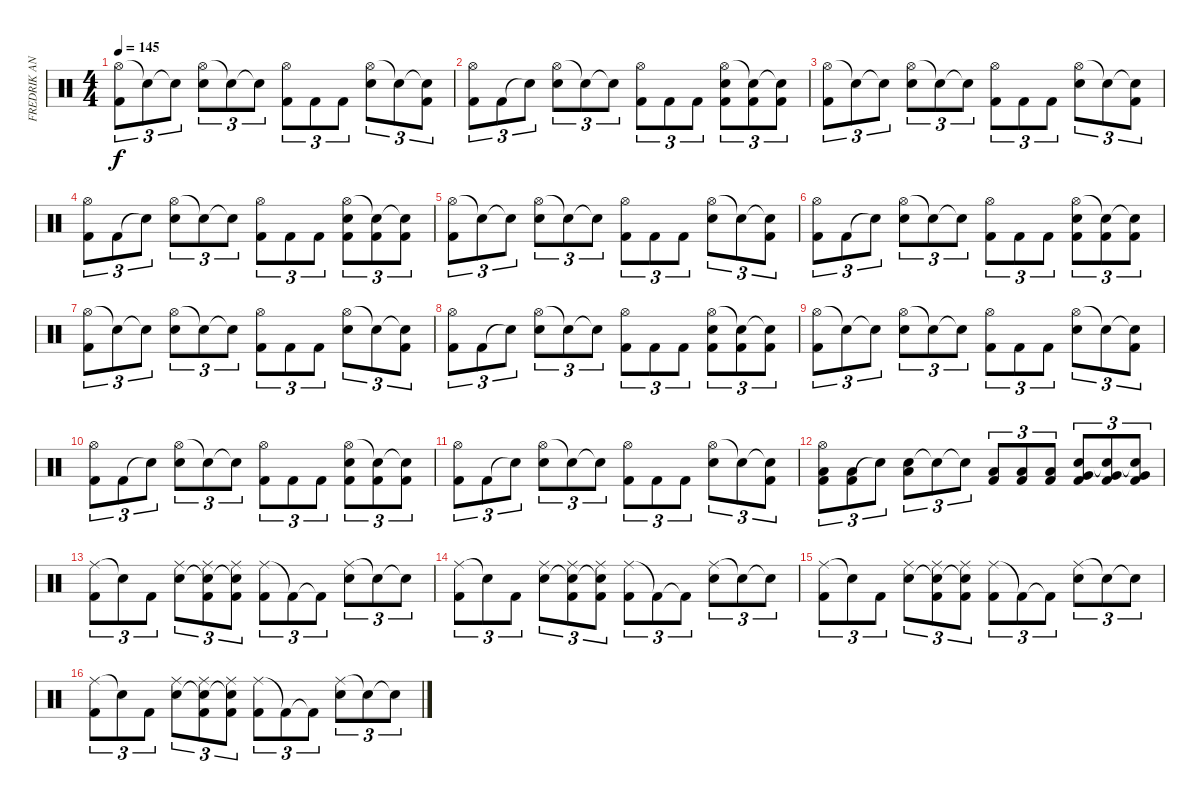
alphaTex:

\track ("FREDRIK ANDERSSON" "FREDRIK AN") {instrument percussion}
\staff {score}
\articulation defaults
\ts (4 4)
\tempo 145
\clef neutral
\ks c
("Hi-Hat (open)" "Kick (hit) 2").8{tu (3 2) dy f} "Snare (hit)"{t}.8{tu (3 2)} "Snare (hit)"{t}.8{tu (3 2)} ("Hi-Hat (open)" "Snare (hit) 2").8{tu (3 2)} "Snare (hit)"{t}.8{tu (3 2)} "Snare (hit)"{t}.8{tu (3 2)} ("Hi-Hat (open)" "Kick (hit) 2").8{tu (3 2)} "Kick (hit) 2".8{tu (3 2)} "Kick (hit) 2".8{tu (3 2)} ("Hi-Hat (open)" "Snare (hit) 2").8{tu (3 2)} "Snare (hit)"{t}.8{tu (3 2)} ("Snare (hit)"{t} "Kick (hit) 2").8{tu (3 2)} |
("Hi-Hat (open)" "Kick (hit) 2").8{tu (3 2)} "Kick (hit) 2".8{tu (3 2)} "Snare (hit)"{t}.8{tu (3 2)} ("Hi-Hat (open)" "Snare (hit) 2").8{tu (3 2)} "Snare (hit)"{t}.8{tu (3 2)} "Snare (hit)"{t}.8{tu (3 2)} ("Hi-Hat (open)" "Kick (hit) 2").8{tu (3 2)} "Kick (hit) 2".8{tu (3 2)} "Kick (hit) 2".8{tu (3 2)} ("Hi-Hat (open)" "Snare (hit) 2" "Kick (hit) 2").8{tu (3 2)} ("Snare (hit)"{t} "Kick (hit) 2").8{tu (3 2)} ("Snare (hit)"{t} "Kick (hit) 2").8{tu (3 2)} |
("Hi-Hat (open)" "Kick (hit) 2").8{tu (3 2)} "Snare (hit)"{t}.8{tu (3 2)} "Snare (hit)"{t}.8{tu (3 2)} ("Hi-Hat (open)" "Snare (hit) 2").8{tu (3 2)} "Snare (hit)"{t}.8{tu (3 2)} "Snare (hit)"{t}.8{tu (3 2)} ("Hi-Hat (open)" "Kick (hit) 2").8{tu (3 2)} "Kick (hit) 2".8{tu (3 2)} "Kick (hit) 2".8{tu (3 2)} ("Hi-Hat (open)" "Snare (hit) 2").8{tu (3 2)} "Snare (hit)"{t}.8{tu (3 2)} ("Snare (hit)"{t} "Kick (hit) 2").8{tu (3 2)} |
("Hi-Hat (open)" "Kick (hit) 2").8{tu (3 2)} "Kick (hit) 2".8{tu (3 2)} "Snare (hit)"{t}.8{tu (3 2)} ("Hi-Hat (open)" "Snare (hit) 2").8{tu (3 2)} "Snare (hit)"{t}.8{tu (3 2)} "Snare (hit)"{t}.8{tu (3 2)} ("Hi-Hat (open)" "Kick (hit) 2").8{tu (3 2)} "Kick (hit) 2".8{tu (3 2)} "Kick (hit) 2".8{tu (3 2)} ("Hi-Hat (open)" "Snare (hit) 2" "Kick (hit) 2").8{tu (3 2)} ("Snare (hit)"{t} "Kick (hit) 2").8{tu (3 2)} ("Snare (hit)"{t} "Kick (hit) 2").8{tu (3 2)} |
("Hi-Hat (open)" "Kick (hit) 2").8{tu (3 2)} "Snare (hit)"{t}.8{tu (3 2)} "Snare (hit)"{t}.8{tu (3 2)} ("Hi-Hat (open)" "Snare (hit) 2").8{tu (3 2)} "Snare (hit)"{t}.8{tu (3 2)} "Snare (hit)"{t}.8{tu (3 2)} ("Hi-Hat (open)" "Kick (hit) 2").8{tu (3 2)} "Kick (hit) 2".8{tu (3 2)} "Kick (hit) 2".8{tu (3 2)} ("Hi-Hat (open)" "Snare (hit) 2").8{tu (3 2)} "Snare (hit)"{t}.8{tu (3 2)} ("Snare (hit)"{t} "Kick (hit) 2").8{tu (3 2)} |
("Hi-Hat (open)" "Kick (hit) 2").8{tu (3 2)} "Kick (hit) 2".8{tu (3 2)} "Snare (hit)"{t}.8{tu (3 2)} ("Hi-Hat (open)" "Snare (hit) 2").8{tu (3 2)} "Snare (hit)"{t}.8{tu (3 2)} "Snare (hit)"{t}.8{tu (3 2)} ("Hi-Hat (open)" "Kick (hit) 2").8{tu (3 2)} "Kick (hit) 2".8{tu (3 2)} "Kick (hit) 2".8{tu (3 2)} ("Hi-Hat (open)" "Snare (hit) 2" "Kick (hit) 2").8{tu (3 2)} ("Snare (hit)"{t} "Kick (hit) 2").8{tu (3 2)} ("Snare (hit)"{t} "Kick (hit) 2").8{tu (3 2)} |
("Hi-Hat (open)" "Kick (hit) 2").8{tu (3 2)} "Snare (hit)"{t}.8{tu (3 2)} "Snare (hit)"{t}.8{tu (3 2)} ("Hi-Hat (open)" "Snare (hit) 2").8{tu (3 2)} "Snare (hit)"{t}.8{tu (3 2)} "Snare (hit)"{t}.8{tu (3 2)} ("Hi-Hat (open)" "Kick (hit) 2").8{tu (3 2)} "Kick (hit) 2".8{tu (3 2)} "Kick (hit) 2".8{tu (3 2)} ("Hi-Hat (open)" "Snare (hit) 2").8{tu (3 2)} "Snare (hit)"{t}.8{tu (3 2)} ("Snare (hit)"{t} "Kick (hit) 2").8{tu (3 2)} |
("Hi-Hat (open)" "Kick (hit) 2").8{tu (3 2)} "Kick (hit) 2".8{tu (3 2)} "Snare (hit)"{t}.8{tu (3 2)} ("Hi-Hat (open)" "Snare (hit) 2").8{tu (3 2)} "Snare (hit)"{t}.8{tu (3 2)} "Snare (hit)"{t}.8{tu (3 2)} ("Hi-Hat (open)" "Kick (hit) 2").8{tu (3 2)} "Kick (hit) 2".8{tu (3 2)} "Kick (hit) 2".8{tu (3 2)} ("Hi-Hat (open)" "Snare (hit) 2" "Kick (hit) 2").8{tu (3 2)} ("Snare (hit)"{t} "Kick (hit) 2").8{tu (3 2)} ("Snare (hit)"{t} "Kick (hit) 2").8{tu (3 2)} |
("Hi-Hat (open)" "Kick (hit) 2").8{tu (3 2)} "Snare (hit)"{t}.8{tu (3 2)} "Snare (hit)"{t}.8{tu (3 2)} ("Hi-Hat (open)" "Snare (hit) 2").8{tu (3 2)} "Snare (hit)"{t}.8{tu (3 2)} "Snare (hit)"{t}.8{tu (3 2)} ("Hi-Hat (open)" "Kick (hit) 2").8{tu (3 2)} "Kick (hit) 2".8{tu (3 2)} "Kick (hit) 2".8{tu (3 2)} ("Hi-Hat (open)" "Snare (hit) 2").8{tu (3 2)} "Snare (hit)"{t}.8{tu (3 2)} ("Snare (hit)"{t} "Kick (hit) 2").8{tu (3 2)} |
("Hi-Hat (open)" "Kick (hit) 2").8{tu (3 2)} "Kick (hit) 2".8{tu (3 2)} "Snare (hit)"{t}.8{tu (3 2)} ("Hi-Hat (open)" "Snare (hit) 2").8{tu (3 2)} "Snare (hit)"{t}.8{tu (3 2)} "Snare (hit)"{t}.8{tu (3 2)} ("Hi-Hat (open)" "Kick (hit) 2").8{tu (3 2)} "Kick (hit) 2".8{tu (3 2)} "Kick (hit) 2".8{tu (3 2)} ("Hi-Hat (open)" "Snare (hit) 2" "Kick (hit) 2").8{tu (3 2)} ("Snare (hit)"{t} "Kick (hit) 2").8{tu (3 2)} ("Snare (hit)"{t} "Kick (hit) 2").8{tu (3 2)} |
("Hi-Hat (open)" "Kick (hit) 2").8{tu (3 2)} "Kick (hit) 2".8{tu (3 2)} "Snare (hit)"{t}.8{tu (3 2)} ("Hi-Hat (open)" "Snare (hit) 2").8{tu (3 2)} "Snare (hit)"{t}.8{tu (3 2)} "Snare (hit)"{t}.8{tu (3 2)} ("Hi-Hat (open)" "Kick (hit) 2").8{tu (3 2)} "Kick (hit) 2".8{tu (3 2)} "Kick (hit) 2".8{tu (3 2)} ("Hi-Hat (open)" "Snare (hit) 2").8{tu (3 2)} "Snare (hit)"{t}.8{tu (3 2)} ("Snare (hit)"{t} "Kick (hit) 2").8{tu (3 2)} |
("Hi-Hat (open)" "Kick (hit) 2" "Low Floor Tom (hit)").8{tu (3 2)} ("Kick (hit) 2" "Low Floor Tom (hit)").8{tu (3 2)} "Snare (hit)"{t}.8{tu (3 2)} ("Snare (hit) 2" "Low Floor Tom (hit)").8{tu (3 2)} "Snare (hit)"{t}.8{tu (3 2)} "Snare (hit)"{t}.8{tu (3 2)} ("Kick (hit) 2" "Low Tom (hit)").8{tu (3 2)} ("Kick (hit) 2" "Low Tom (hit)").8{tu (3 2)} ("Kick (hit) 2" "Low Tom (hit)").8{tu (3 2)} ("Snare (hit) 2" "Kick (hit) 2" "Very Low Tom (hit)").8{tu (3 2)} ("Snare (hit)"{t} "Kick (hit) 2" "Very Low Tom (hit)").8{tu (3 2)} ("Snare (hit)"{t} "Kick (hit) 2" "Very Low Tom (hit)").8{tu (3 2)} |
("Ride (middle)" "Kick (hit) 2").8{tu (3 2)} "Snare (hit)"{t}.8{tu (3 2)} "Kick (hit) 2".8{tu (3 2)} ("Ride (middle)" "Snare (hit) 2").8{tu (3 2)} ("Ride (middle)" "Snare (hit)"{t} "Kick (hit) 2").8{tu (3 2)} ("Ride (middle)" "Snare (hit)"{t} "Kick (hit) 2").8{tu (3 2)} ("Ride (middle)" "Kick (hit) 2").8{tu (3 2)} "Kick (hit) 2"{t}.8{tu (3 2)} "Kick (hit) 2"{t}.8{tu (3 2)} ("Ride (middle)" "Snare (hit) 2").8{tu (3 2)} "Snare (hit)"{t}.8{tu (3 2)} "Snare (hit)"{t}.8{tu (3 2)} |
("Ride (middle)" "Kick (hit) 2").8{tu (3 2)} "Snare (hit)"{t}.8{tu (3 2)} "Kick (hit) 2".8{tu (3 2)} ("Ride (middle)" "Snare (hit) 2").8{tu (3 2)} ("Ride (middle)" "Snare (hit)"{t} "Kick (hit) 2").8{tu (3 2)} ("Ride (middle)" "Snare (hit)"{t} "Kick (hit) 2").8{tu (3 2)} ("Ride (middle)" "Kick (hit) 2").8{tu (3 2)} "Kick (hit) 2"{t}.8{tu (3 2)} "Kick (hit) 2"{t}.8{tu (3 2)} ("Ride (middle)" "Snare (hit) 2").8{tu (3 2)} "Snare (hit)"{t}.8{tu (3 2)} "Snare (hit)"{t}.8{tu (3 2)} |
("Ride (middle)" "Kick (hit) 2").8{tu (3 2)} "Snare (hit)"{t}.8{tu (3 2)} "Kick (hit) 2".8{tu (3 2)} ("Ride (middle)" "Snare (hit) 2").8{tu (3 2)} ("Ride (middle)" "Snare (hit)"{t} "Kick (hit) 2").8{tu (3 2)} ("Ride (middle)" "Snare (hit)"{t} "Kick (hit) 2").8{tu (3 2)} ("Ride (middle)" "Kick (hit) 2").8{tu (3 2)} "Kick (hit) 2"{t}.8{tu (3 2)} "Kick (hit) 2"{t}.8{tu (3 2)} ("Ride (middle)" "Snare (hit) 2").8{tu (3 2)} "Snare (hit)"{t}.8{tu (3 2)} "Snare (hit)"{t}.8{tu (3 2)} |
("Ride (middle)" "Kick (hit) 2").8{tu (3 2)} "Snare (hit)"{t}.8{tu (3 2)} "Kick (hit) 2".8{tu (3 2)} ("Ride (middle)" "Snare (hit) 2").8{tu (3 2)} ("Ride (middle)" "Snare (hit)"{t} "Kick (hit) 2").8{tu (3 2)} ("Ride (middle)" "Snare (hit)"{t} "Kick (hit) 2").8{tu (3 2)} ("Ride (middle)" "Kick (hit) 2").8{tu (3 2)} "Kick (hit) 2"{t}.8{tu (3 2)} "Kick (hit) 2"{t}.8{tu (3 2)} ("Ride (middle)" "Snare (hit) 2").8{tu (3 2)} "Snare (hit)"{t}.8{tu (3 2)} "Snare (hit)"{t}.8{tu (3 2)}
